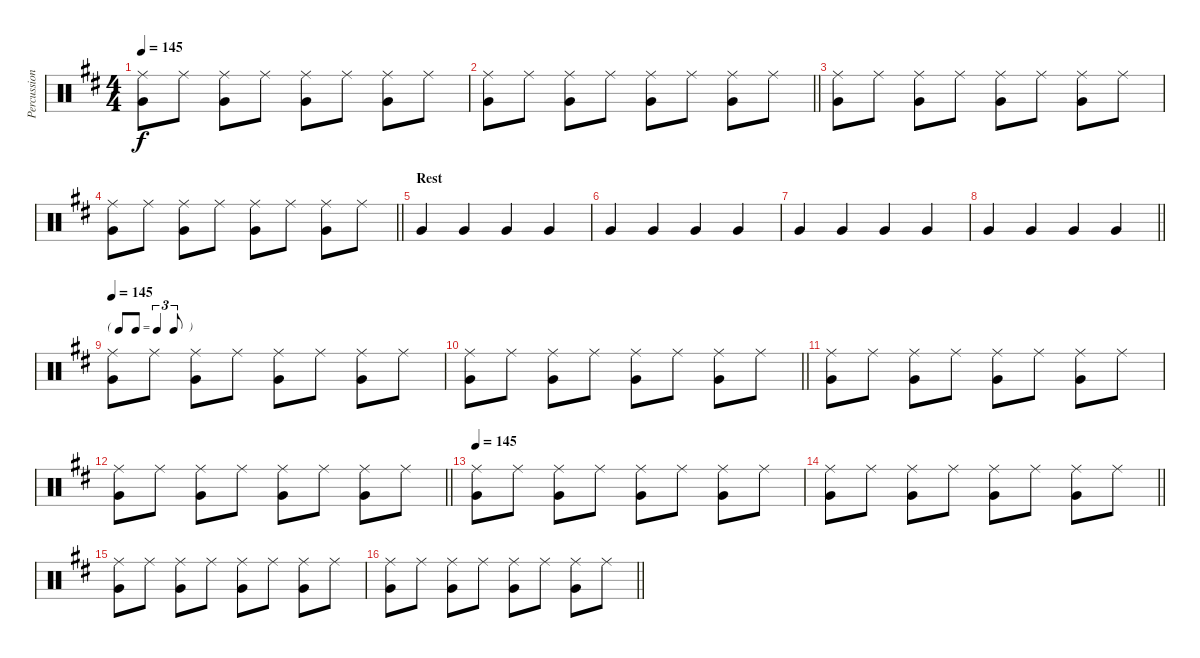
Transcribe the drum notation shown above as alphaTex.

\track ("Percussion" "Percussion") {instrument percussion}
\staff {score}
\articulation defaults
\ts (4 4)
\tempo 145
\clef neutral
\ks d
("Very Low Tom (hit)" "Ride (middle)").8{dy f} "Ride (middle)".8 ("Very Low Tom (hit)" "Ride (middle)").8 "Ride (middle)".8 ("Very Low Tom (hit)" "Ride (middle)").8 "Ride (middle)".8 ("Very Low Tom (hit)" "Ride (middle)").8 "Ride (middle)".8 |
\barLineRight lightlight
("Very Low Tom (hit)" "Ride (middle)").8 "Ride (middle)".8 ("Very Low Tom (hit)" "Ride (middle)").8 "Ride (middle)".8 ("Very Low Tom (hit)" "Ride (middle)").8 "Ride (middle)".8 ("Very Low Tom (hit)" "Ride (middle)").8 "Ride (middle)".8 |
("Very Low Tom (hit)" "Ride (middle)").8 "Ride (middle)".8 ("Very Low Tom (hit)" "Ride (middle)").8 "Ride (middle)".8 ("Very Low Tom (hit)" "Ride (middle)").8 "Ride (middle)".8 ("Very Low Tom (hit)" "Ride (middle)").8 "Ride (middle)".8 |
\barLineRight lightlight
("Very Low Tom (hit)" "Ride (middle)").8 "Ride (middle)".8 ("Very Low Tom (hit)" "Ride (middle)").8 "Ride (middle)".8 ("Very Low Tom (hit)" "Ride (middle)").8 "Ride (middle)".8 ("Very Low Tom (hit)" "Ride (middle)").8 "Ride (middle)".8 |
\section ("" "Rest")
"Very Low Tom (hit)".4 "Very Low Tom (hit)".4 "Very Low Tom (hit)".4 "Very Low Tom (hit)".4 |
"Very Low Tom (hit)".4 "Very Low Tom (hit)".4 "Very Low Tom (hit)".4 "Very Low Tom (hit)".4 |
"Very Low Tom (hit)".4 "Very Low Tom (hit)".4 "Very Low Tom (hit)".4 "Very Low Tom (hit)".4 |
\barLineRight lightlight "Very Low Tom (hit)".4 "Very Low Tom (hit)".4 "Very Low Tom (hit)".4 "Very Low Tom (hit)".4
|
\tf triplet8th
\tempo 145
("Very Low Tom (hit)" "Ride (middle)").8 "Ride (middle)".8 ("Very Low Tom (hit)" "Ride (middle)").8 "Ride (middle)".8 ("Very Low Tom (hit)" "Ride (middle)").8 "Ride (middle)".8 ("Very Low Tom (hit)" "Ride (middle)").8 "Ride (middle)".8 |
\barLineRight lightlight
("Very Low Tom (hit)" "Ride (middle)").8 "Ride (middle)".8 ("Very Low Tom (hit)" "Ride (middle)").8 "Ride (middle)".8 ("Very Low Tom (hit)" "Ride (middle)").8 "Ride (middle)".8 ("Very Low Tom (hit)" "Ride (middle)").8 "Ride (middle)".8 |
("Very Low Tom (hit)" "Ride (middle)").8 "Ride (middle)".8 ("Very Low Tom (hit)" "Ride (middle)").8 "Ride (middle)".8 ("Very Low Tom (hit)" "Ride (middle)").8 "Ride (middle)".8 ("Very Low Tom (hit)" "Ride (middle)").8 "Ride (middle)".8 |
\barLineRight lightlight
("Very Low Tom (hit)" "Ride (middle)").8 "Ride (middle)".8 ("Very Low Tom (hit)" "Ride (middle)").8 "Ride (middle)".8 ("Very Low Tom (hit)" "Ride (middle)").8 "Ride (middle)".8 ("Very Low Tom (hit)" "Ride (middle)").8 "Ride (middle)".8 |
\tempo 145
("Very Low Tom (hit)" "Ride (middle)").8 "Ride (middle)".8 ("Very Low Tom (hit)" "Ride (middle)").8 "Ride (middle)".8 ("Very Low Tom (hit)" "Ride (middle)").8 "Ride (middle)".8 ("Very Low Tom (hit)" "Ride (middle)").8 "Ride (middle)".8 |
\barLineRight lightlight
("Very Low Tom (hit)" "Ride (middle)").8 "Ride (middle)".8 ("Very Low Tom (hit)" "Ride (middle)").8 "Ride (middle)".8 ("Very Low Tom (hit)" "Ride (middle)").8 "Ride (middle)".8 ("Very Low Tom (hit)" "Ride (middle)").8 "Ride (middle)".8 |
("Very Low Tom (hit)" "Ride (middle)").8 "Ride (middle)".8 ("Very Low Tom (hit)" "Ride (middle)").8 "Ride (middle)".8 ("Very Low Tom (hit)" "Ride (middle)").8 "Ride (middle)".8 ("Very Low Tom (hit)" "Ride (middle)").8 "Ride (middle)".8 |
\barLineRight lightlight
("Very Low Tom (hit)" "Ride (middle)").8 "Ride (middle)".8 ("Very Low Tom (hit)" "Ride (middle)").8 "Ride (middle)".8 ("Very Low Tom (hit)" "Ride (middle)").8 "Ride (middle)".8 ("Very Low Tom (hit)" "Ride (middle)").8 "Ride (middle)".8
